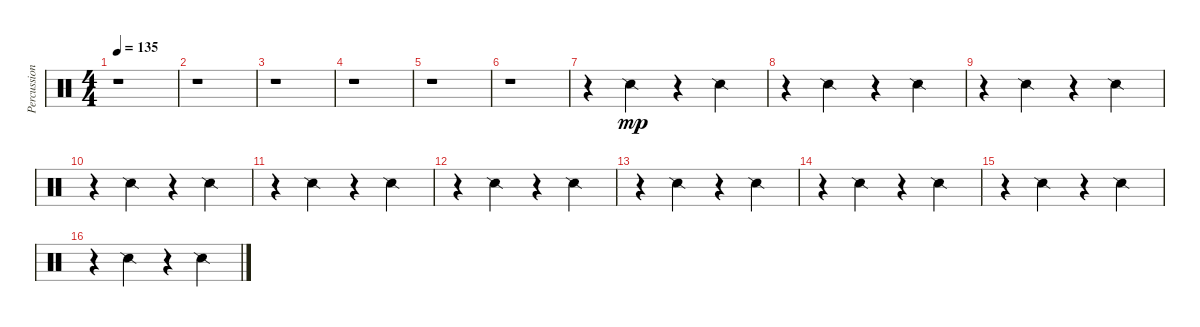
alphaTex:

\track ("Percussion" "Percussion") {instrument percussion}
\staff {score}
\articulation defaults
\ts (4 4)
\tempo 135
\clef neutral
\ks c
r.1{dy mp} |
r.1 |
r.1 |
r.1 |
r.1 |
r.1 |
r.4 "Snare (side stick) 2".4 r.4 "Snare (side stick) 2".4 |
r.4 "Snare (side stick) 2".4 r.4 "Snare (side stick) 2".4 |
r.4 "Snare (side stick) 2".4 r.4 "Snare (side stick) 2".4 |
r.4 "Snare (side stick) 2".4 r.4 "Snare (side stick) 2".4 |
r.4 "Snare (side stick) 2".4 r.4 "Snare (side stick) 2".4 |
r.4 "Snare (side stick) 2".4 r.4 "Snare (side stick) 2".4 |
r.4 "Snare (side stick) 2".4 r.4 "Snare (side stick) 2".4 |
r.4 "Snare (side stick) 2".4 r.4 "Snare (side stick) 2".4 |
r.4 "Snare (side stick) 2".4 r.4 "Snare (side stick) 2".4 |
r.4 "Snare (side stick) 2".4 r.4 "Snare (side stick) 2".4
